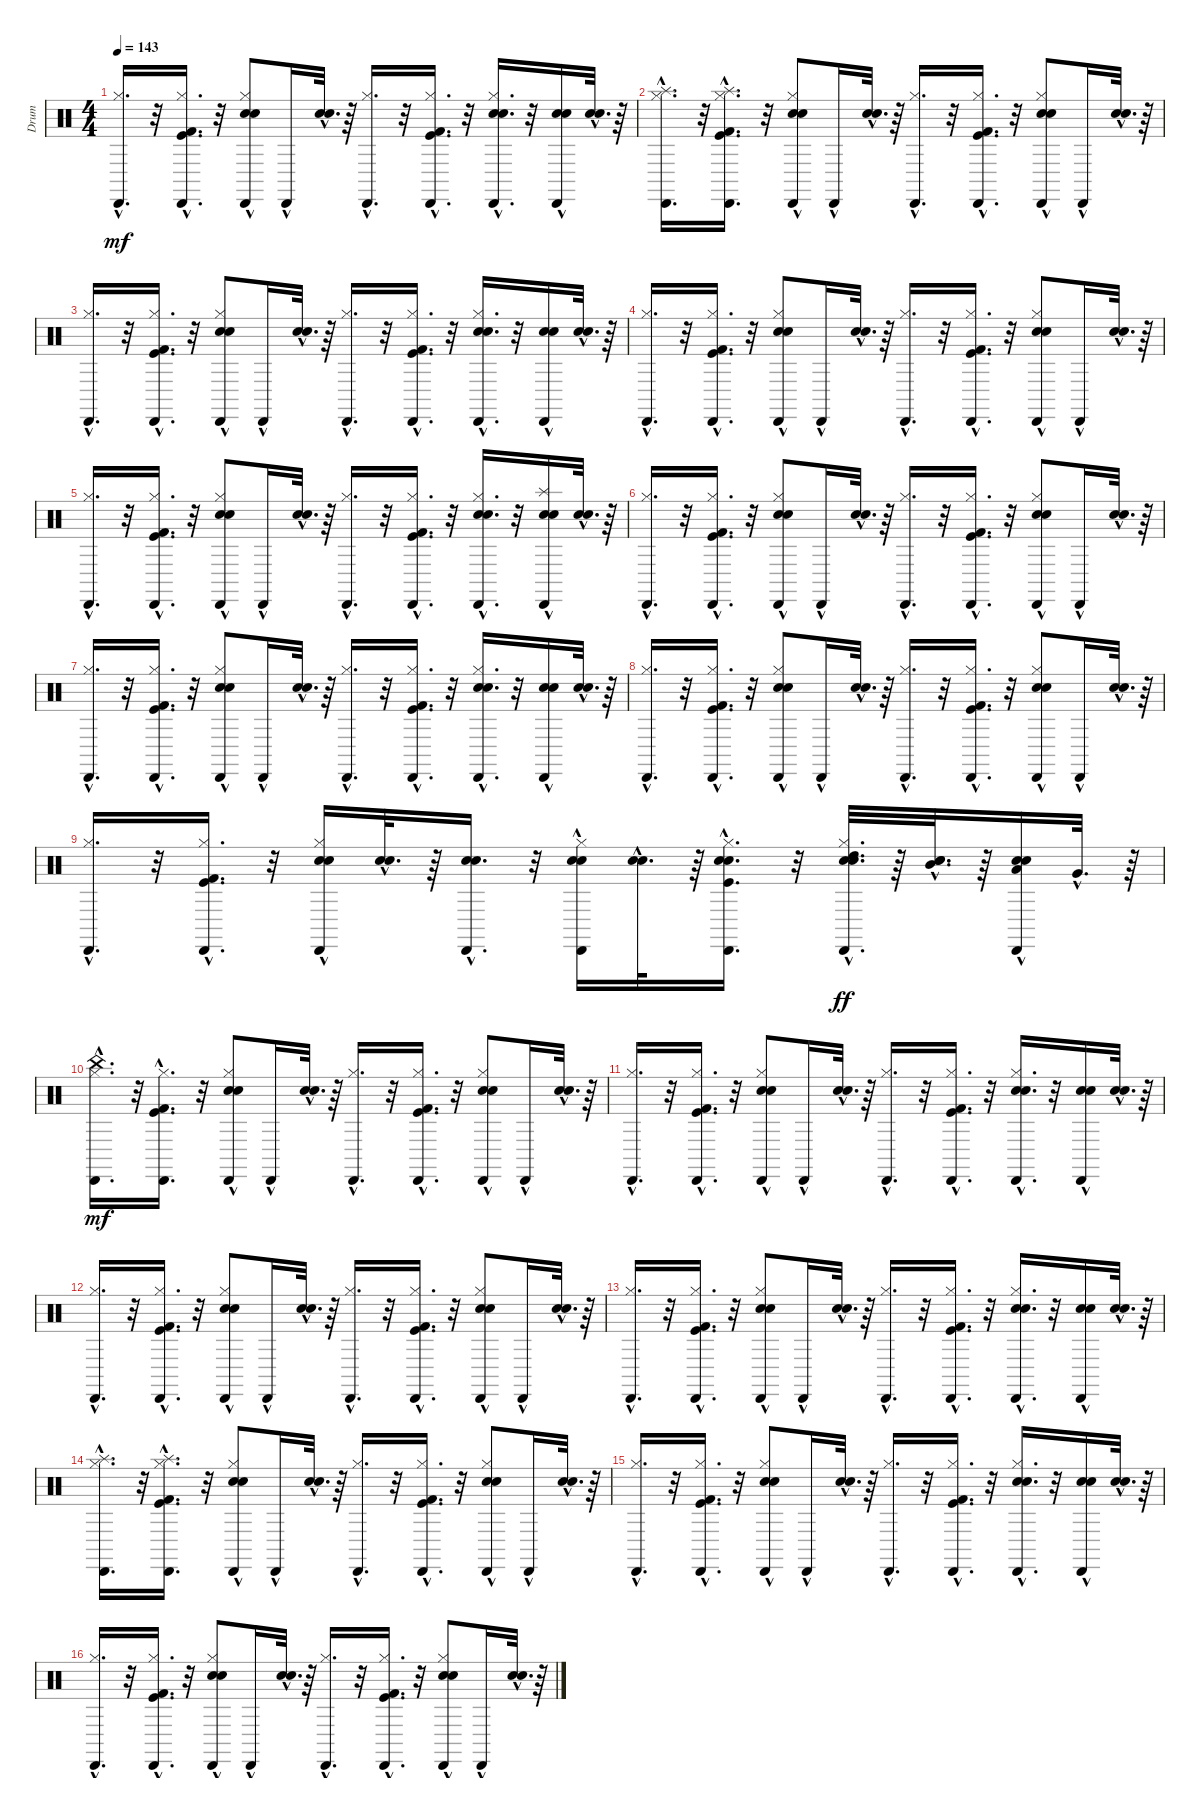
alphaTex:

\track ("Drum" "Drum") {instrument percussion}
\staff {score}
\articulation defaults
\ts (4 4)
\tempo 143
\clef neutral
\ks c
("Hi-Hat (closed)"{hac} "Cabasa (hit)"{hac}).16{d dy mf} r.32 ("Hi-Hat (closed)"{hac} "Kick (hit)"{hac} "Cabasa (hit)"{hac} "Kick (hit) 2"{hac}).16{d} r.32 ("Hi-Hat (closed)" "Snare (hit) 2" "Cabasa (hit)"{hac} "Electric Snare (hit)").8 "Cabasa (hit)"{hac}.16 ("Snare (hit) 2"{hac} "Electric Snare (hit)"{hac}).32{d} r.64 ("Hi-Hat (closed)"{hac} "Cabasa (hit)"{hac}).16{d} r.32 ("Hi-Hat (closed)"{hac} "Kick (hit)"{hac} "Cabasa (hit)"{hac} "Kick (hit) 2"{hac}).16{d} r.32 ("Hi-Hat (closed)"{hac} "Snare (hit) 2"{hac} "Cabasa (hit)"{hac} "Electric Snare (hit)"{hac}).16{d} r.32 ("Snare (hit) 2"{hac} "Cabasa (hit)"{hac} "Electric Snare (hit)"{hac}).16 ("Snare (hit) 2"{hac} "Electric Snare (hit)"{hac}).32{d} r.64 |
("Splash (hit)"{hac} "Hi-Hat (closed)"{hac} "Cabasa (hit)"{hac}).16{d} r.32 ("Splash (hit)"{hac} "Hi-Hat (closed)"{hac} "Kick (hit)"{hac} "Cabasa (hit)"{hac} "Kick (hit) 2"{hac}).16{d} r.32 ("Hi-Hat (closed)" "Snare (hit) 2" "Cabasa (hit)"{hac} "Electric Snare (hit)").8 "Cabasa (hit)"{hac}.16 ("Snare (hit) 2"{hac} "Electric Snare (hit)"{hac}).32{d} r.64 ("Hi-Hat (closed)"{hac} "Cabasa (hit)"{hac}).16{d} r.32 ("Hi-Hat (closed)"{hac} "Kick (hit)"{hac} "Cabasa (hit)"{hac} "Kick (hit) 2"{hac}).16{d} r.32 ("Hi-Hat (closed)" "Snare (hit) 2" "Cabasa (hit)"{hac} "Electric Snare (hit)").8 "Cabasa (hit)"{hac}.16 ("Snare (hit) 2"{hac} "Electric Snare (hit)"{hac}).32{d} r.64 |
("Hi-Hat (closed)"{hac} "Cabasa (hit)"{hac}).16{d} r.32 ("Kick (hit)"{hac} "Hi-Hat (closed)"{hac} "Cabasa (hit)"{hac} "Kick (hit) 2"{hac}).16{d} r.32 ("Snare (hit) 2" "Hi-Hat (closed)" "Cabasa (hit)"{hac} "Electric Snare (hit)").8 "Cabasa (hit)"{hac}.16 ("Snare (hit) 2"{hac} "Electric Snare (hit)"{hac}).32{d} r.64 ("Hi-Hat (closed)"{hac} "Cabasa (hit)"{hac}).16{d} r.32 ("Kick (hit)"{hac} "Hi-Hat (closed)"{hac} "Cabasa (hit)"{hac} "Kick (hit) 2"{hac}).16{d} r.32 ("Snare (hit) 2"{hac} "Hi-Hat (closed)"{hac} "Cabasa (hit)"{hac} "Electric Snare (hit)"{hac}).16{d} r.32 ("Snare (hit) 2"{hac} "Cabasa (hit)"{hac} "Electric Snare (hit)"{hac}).16 ("Snare (hit) 2"{hac} "Electric Snare (hit)"{hac}).32{d} r.64 |
("Hi-Hat (closed)"{hac} "Cabasa (hit)"{hac}).16{d} r.32 ("Hi-Hat (closed)"{hac} "Kick (hit)"{hac} "Cabasa (hit)"{hac} "Kick (hit) 2"{hac}).16{d} r.32 ("Hi-Hat (closed)" "Snare (hit) 2" "Cabasa (hit)"{hac} "Electric Snare (hit)").8 "Cabasa (hit)"{hac}.16 ("Snare (hit) 2"{hac} "Electric Snare (hit)"{hac}).32{d} r.64 ("Hi-Hat (closed)"{hac} "Cabasa (hit)"{hac}).16{d} r.32 ("Hi-Hat (closed)"{hac} "Kick (hit)"{hac} "Cabasa (hit)"{hac} "Kick (hit) 2"{hac}).16{d} r.32 ("Hi-Hat (closed)" "Snare (hit) 2" "Cabasa (hit)"{hac} "Electric Snare (hit)").8 "Cabasa (hit)"{hac}.16 ("Snare (hit) 2"{hac} "Electric Snare (hit)"{hac}).32{d} r.64 |
("Hi-Hat (closed)"{hac} "Cabasa (hit)"{hac}).16{d} r.32 ("Hi-Hat (closed)"{hac} "Kick (hit)"{hac} "Cabasa (hit)"{hac} "Kick (hit) 2"{hac}).16{d} r.32 ("Hi-Hat (closed)" "Snare (hit) 2" "Cabasa (hit)"{hac} "Electric Snare (hit)").8 "Cabasa (hit)"{hac}.16 ("Snare (hit) 2"{hac} "Electric Snare (hit)"{hac}).32{d} r.64 ("Hi-Hat (closed)"{hac} "Cabasa (hit)"{hac}).16{d} r.32 ("Hi-Hat (closed)"{hac} "Kick (hit)"{hac} "Cabasa (hit)"{hac} "Kick (hit) 2"{hac}).16{d} r.32 ("Hi-Hat (closed)"{hac} "Snare (hit) 2"{hac} "Cabasa (hit)"{hac} "Electric Snare (hit)"{hac}).16{d} r.32 ("Splash (hit)"{hac} "Snare (hit) 2"{hac} "Cabasa (hit)"{hac} "Electric Snare (hit)"{hac}).16 ("Snare (hit) 2"{hac} "Electric Snare (hit)"{hac}).32{d} r.64 |
("Hi-Hat (closed)"{hac} "Cabasa (hit)"{hac}).16{d} r.32 ("Hi-Hat (closed)"{hac} "Kick (hit)"{hac} "Cabasa (hit)"{hac} "Kick (hit) 2"{hac}).16{d} r.32 ("Hi-Hat (closed)" "Snare (hit) 2" "Cabasa (hit)"{hac} "Electric Snare (hit)").8 "Cabasa (hit)"{hac}.16 ("Snare (hit) 2"{hac} "Electric Snare (hit)"{hac}).32{d} r.64 ("Hi-Hat (closed)"{hac} "Cabasa (hit)"{hac}).16{d} r.32 ("Hi-Hat (closed)"{hac} "Kick (hit)"{hac} "Cabasa (hit)"{hac} "Kick (hit) 2"{hac}).16{d} r.32 ("Hi-Hat (closed)" "Snare (hit) 2" "Cabasa (hit)"{hac} "Electric Snare (hit)").8 "Cabasa (hit)"{hac}.16 ("Snare (hit) 2"{hac} "Electric Snare (hit)"{hac}).32{d} r.64 |
("Hi-Hat (closed)"{hac} "Cabasa (hit)"{hac}).16{d} r.32 ("Kick (hit)"{hac} "Hi-Hat (closed)"{hac} "Cabasa (hit)"{hac} "Kick (hit) 2"{hac}).16{d} r.32 ("Snare (hit) 2" "Hi-Hat (closed)" "Cabasa (hit)"{hac} "Electric Snare (hit)").8 "Cabasa (hit)"{hac}.16 ("Snare (hit) 2"{hac} "Electric Snare (hit)"{hac}).32{d} r.64 ("Hi-Hat (closed)"{hac} "Cabasa (hit)"{hac}).16{d} r.32 ("Kick (hit)"{hac} "Hi-Hat (closed)"{hac} "Cabasa (hit)"{hac} "Kick (hit) 2"{hac}).16{d} r.32 ("Snare (hit) 2"{hac} "Hi-Hat (closed)"{hac} "Cabasa (hit)"{hac} "Electric Snare (hit)"{hac}).16{d} r.32 ("Snare (hit) 2"{hac} "Cabasa (hit)"{hac} "Electric Snare (hit)"{hac}).16 ("Snare (hit) 2"{hac} "Electric Snare (hit)"{hac}).32{d} r.64 |
("Hi-Hat (closed)"{hac} "Cabasa (hit)"{hac}).16{d} r.32 ("Hi-Hat (closed)"{hac} "Kick (hit)"{hac} "Cabasa (hit)"{hac} "Kick (hit) 2"{hac}).16{d} r.32 ("Hi-Hat (closed)" "Snare (hit) 2" "Cabasa (hit)"{hac} "Electric Snare (hit)").8 "Cabasa (hit)"{hac}.16 ("Snare (hit) 2"{hac} "Electric Snare (hit)"{hac}).32{d} r.64 ("Hi-Hat (closed)"{hac} "Cabasa (hit)"{hac}).16{d} r.32 ("Hi-Hat (closed)"{hac} "Kick (hit)"{hac} "Cabasa (hit)"{hac} "Kick (hit) 2"{hac}).16{d} r.32 ("Hi-Hat (closed)" "Snare (hit) 2" "Cabasa (hit)"{hac} "Electric Snare (hit)").8 "Cabasa (hit)"{hac}.16 ("Snare (hit) 2"{hac} "Electric Snare (hit)"{hac}).32{d} r.64 |
("Hi-Hat (closed)"{hac} "Cabasa (hit)"{hac}).16{d} r.32 ("Kick (hit) 2"{hac} "Kick (hit)"{hac} "Hi-Hat (closed)"{hac} "Cabasa (hit)"{hac}).16{d} r.32 ("Electric Snare (hit)"{hac} "Hi-Hat (closed)"{hac} "Snare (hit) 2"{hac} "Cabasa (hit)"{hac}).16 ("Electric Snare (hit)"{hac} "Snare (hit) 2"{hac}).32{d} r.64 ("Electric Snare (hit)"{hac} "Snare (hit) 2"{hac} "Cabasa (hit)"{hac}).16{d} r.32 ("Electric Snare (hit)"{hac} "Hi-Hat (closed)"{hac} "Snare (hit) 2"{hac} "Cabasa (hit)"{hac}).16 ("Electric Snare (hit)"{hac} "Snare (hit) 2"{hac}).32{d} r.64 ("Electric Snare (hit)"{hac} "Kick (hit)"{hac} "Hi-Hat (closed)"{hac} "Snare (hit) 2"{hac} "Cabasa (hit)"{hac}).16{d} r.32 ("Electric Snare (hit)"{hac} "Hi-Hat (closed)"{hac} "Snare (hit) 2"{hac} "Cabasa (hit)"{hac} "High Tom (hit)"{hac}).32{d dy ff} r.64 ("Electric Snare (hit)"{hac} "Snare (hit) 2"{hac} "Mid Tom (hit)"{hac}).32{d} r.64 ("Electric Snare (hit)"{hac} "Snare (hit) 2"{hac} "Cabasa (hit)"{hac} "Low Tom (hit)"{hac}).16 "Very Low Tom (hit)"{hac}.32{d} r.64 |
("China (hit)"{hac} "Hi-Hat (closed)"{hac} "Cabasa (hit)"{hac}).16{d dy mf} r.32 ("Hi-Hat (closed)"{hac} "Kick (hit)"{hac} "Cabasa (hit)"{hac} "Kick (hit) 2"{hac}).16{d} r.32 ("Hi-Hat (closed)" "Snare (hit) 2" "Cabasa (hit)"{hac} "Electric Snare (hit)").8 "Cabasa (hit)"{hac}.16 ("Snare (hit) 2"{hac} "Electric Snare (hit)"{hac}).32{d} r.64 ("Hi-Hat (closed)"{hac} "Cabasa (hit)"{hac}).16{d} r.32 ("Hi-Hat (closed)"{hac} "Kick (hit)"{hac} "Cabasa (hit)"{hac} "Kick (hit) 2"{hac}).16{d} r.32 ("Hi-Hat (closed)" "Snare (hit) 2" "Cabasa (hit)"{hac} "Electric Snare (hit)").8 "Cabasa (hit)"{hac}.16 ("Snare (hit) 2"{hac} "Electric Snare (hit)"{hac}).32{d} r.64 |
("Hi-Hat (closed)"{hac} "Cabasa (hit)"{hac}).16{d} r.32 ("Kick (hit)"{hac} "Hi-Hat (closed)"{hac} "Cabasa (hit)"{hac} "Kick (hit) 2"{hac}).16{d} r.32 ("Snare (hit) 2" "Hi-Hat (closed)" "Cabasa (hit)"{hac} "Electric Snare (hit)").8 "Cabasa (hit)"{hac}.16 ("Snare (hit) 2"{hac} "Electric Snare (hit)"{hac}).32{d} r.64 ("Hi-Hat (closed)"{hac} "Cabasa (hit)"{hac}).16{d} r.32 ("Kick (hit)"{hac} "Hi-Hat (closed)"{hac} "Cabasa (hit)"{hac} "Kick (hit) 2"{hac}).16{d} r.32 ("Snare (hit) 2"{hac} "Hi-Hat (closed)"{hac} "Cabasa (hit)"{hac} "Electric Snare (hit)"{hac}).16{d} r.32 ("Snare (hit) 2"{hac} "Cabasa (hit)"{hac} "Electric Snare (hit)"{hac}).16 ("Snare (hit) 2"{hac} "Electric Snare (hit)"{hac}).32{d} r.64 |
("Hi-Hat (closed)"{hac} "Cabasa (hit)"{hac}).16{d} r.32 ("Hi-Hat (closed)"{hac} "Kick (hit)"{hac} "Cabasa (hit)"{hac} "Kick (hit) 2"{hac}).16{d} r.32 ("Hi-Hat (closed)" "Snare (hit) 2" "Cabasa (hit)"{hac} "Electric Snare (hit)").8 "Cabasa (hit)"{hac}.16 ("Snare (hit) 2"{hac} "Electric Snare (hit)"{hac}).32{d} r.64 ("Hi-Hat (closed)"{hac} "Cabasa (hit)"{hac}).16{d} r.32 ("Hi-Hat (closed)"{hac} "Kick (hit)"{hac} "Cabasa (hit)"{hac} "Kick (hit) 2"{hac}).16{d} r.32 ("Hi-Hat (closed)" "Snare (hit) 2" "Cabasa (hit)"{hac} "Electric Snare (hit)").8 "Cabasa (hit)"{hac}.16 ("Snare (hit) 2"{hac} "Electric Snare (hit)"{hac}).32{d} r.64 |
("Hi-Hat (closed)"{hac} "Cabasa (hit)"{hac}).16{d} r.32 ("Hi-Hat (closed)"{hac} "Kick (hit)"{hac} "Cabasa (hit)"{hac} "Kick (hit) 2"{hac}).16{d} r.32 ("Hi-Hat (closed)" "Snare (hit) 2" "Cabasa (hit)"{hac} "Electric Snare (hit)").8 "Cabasa (hit)"{hac}.16 ("Snare (hit) 2"{hac} "Electric Snare (hit)"{hac}).32{d} r.64 ("Hi-Hat (closed)"{hac} "Cabasa (hit)"{hac}).16{d} r.32 ("Hi-Hat (closed)"{hac} "Kick (hit)"{hac} "Cabasa (hit)"{hac} "Kick (hit) 2"{hac}).16{d} r.32 ("Hi-Hat (closed)"{hac} "Snare (hit) 2"{hac} "Cabasa (hit)"{hac} "Electric Snare (hit)"{hac}).16{d} r.32 ("Snare (hit) 2"{hac} "Cabasa (hit)"{hac} "Electric Snare (hit)"{hac}).16 ("Snare (hit) 2"{hac} "Electric Snare (hit)"{hac}).32{d} r.64 |
("Splash (hit)"{hac} "Hi-Hat (closed)"{hac} "Cabasa (hit)"{hac}).16{d} r.32 ("Splash (hit)"{hac} "Hi-Hat (closed)"{hac} "Kick (hit)"{hac} "Cabasa (hit)"{hac} "Kick (hit) 2"{hac}).16{d} r.32 ("Hi-Hat (closed)" "Snare (hit) 2" "Cabasa (hit)"{hac} "Electric Snare (hit)").8 "Cabasa (hit)"{hac}.16 ("Snare (hit) 2"{hac} "Electric Snare (hit)"{hac}).32{d} r.64 ("Hi-Hat (closed)"{hac} "Cabasa (hit)"{hac}).16{d} r.32 ("Hi-Hat (closed)"{hac} "Kick (hit)"{hac} "Cabasa (hit)"{hac} "Kick (hit) 2"{hac}).16{d} r.32 ("Hi-Hat (closed)" "Snare (hit) 2" "Cabasa (hit)"{hac} "Electric Snare (hit)").8 "Cabasa (hit)"{hac}.16 ("Snare (hit) 2"{hac} "Electric Snare (hit)"{hac}).32{d} r.64 |
("Hi-Hat (closed)"{hac} "Cabasa (hit)"{hac}).16{d} r.32 ("Kick (hit)"{hac} "Hi-Hat (closed)"{hac} "Cabasa (hit)"{hac} "Kick (hit) 2"{hac}).16{d} r.32 ("Snare (hit) 2" "Hi-Hat (closed)" "Cabasa (hit)"{hac} "Electric Snare (hit)").8 "Cabasa (hit)"{hac}.16 ("Snare (hit) 2"{hac} "Electric Snare (hit)"{hac}).32{d} r.64 ("Hi-Hat (closed)"{hac} "Cabasa (hit)"{hac}).16{d} r.32 ("Kick (hit)"{hac} "Hi-Hat (closed)"{hac} "Cabasa (hit)"{hac} "Kick (hit) 2"{hac}).16{d} r.32 ("Snare (hit) 2"{hac} "Hi-Hat (closed)"{hac} "Cabasa (hit)"{hac} "Electric Snare (hit)"{hac}).16{d} r.32 ("Snare (hit) 2"{hac} "Cabasa (hit)"{hac} "Electric Snare (hit)"{hac}).16 ("Snare (hit) 2"{hac} "Electric Snare (hit)"{hac}).32{d} r.64 |
("Hi-Hat (closed)"{hac} "Cabasa (hit)"{hac}).16{d} r.32 ("Hi-Hat (closed)"{hac} "Kick (hit)"{hac} "Cabasa (hit)"{hac} "Kick (hit) 2"{hac}).16{d} r.32 ("Hi-Hat (closed)" "Snare (hit) 2" "Cabasa (hit)"{hac} "Electric Snare (hit)").8 "Cabasa (hit)"{hac}.16 ("Snare (hit) 2"{hac} "Electric Snare (hit)"{hac}).32{d} r.64 ("Hi-Hat (closed)"{hac} "Cabasa (hit)"{hac}).16{d} r.32 ("Hi-Hat (closed)"{hac} "Kick (hit)"{hac} "Cabasa (hit)"{hac} "Kick (hit) 2"{hac}).16{d} r.32 ("Hi-Hat (closed)" "Snare (hit) 2" "Cabasa (hit)"{hac} "Electric Snare (hit)").8 "Cabasa (hit)"{hac}.16 ("Snare (hit) 2"{hac} "Electric Snare (hit)"{hac}).32{d} r.64
